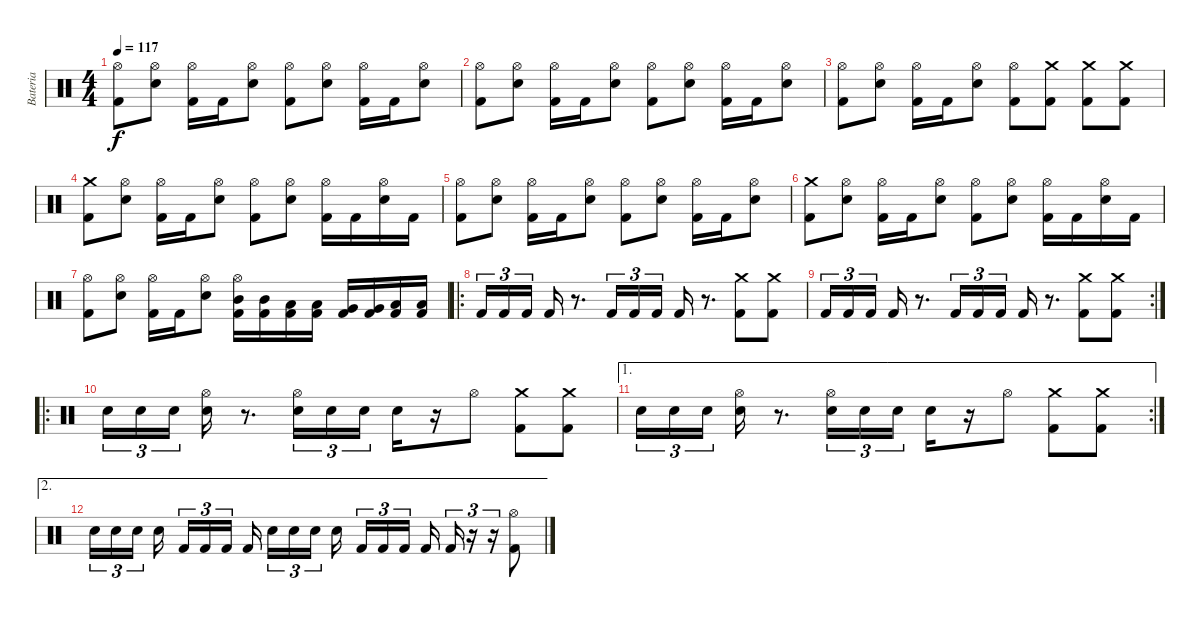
\track ("Bateria" "Bateria") {instrument percussion}
\staff {score}
\articulation defaults
\ts (4 4)
\tempo 117
\clef neutral
\ks c
("Hi-Hat (open)" "Kick (hit) 2").8{dy f} ("Hi-Hat (open)" "Electric Snare (hit)").8 ("Hi-Hat (open)" "Kick (hit) 2").16 "Kick (hit) 2".16 ("Hi-Hat (open)" "Electric Snare (hit)").8 ("Hi-Hat (open)" "Kick (hit) 2").8 ("Hi-Hat (open)" "Electric Snare (hit)").8 ("Hi-Hat (open)" "Kick (hit) 2").16 "Kick (hit) 2".16 ("Hi-Hat (open)" "Electric Snare (hit)").8 |
("Hi-Hat (open)" "Kick (hit) 2").8 ("Hi-Hat (open)" "Electric Snare (hit)").8 ("Hi-Hat (open)" "Kick (hit) 2").16 "Kick (hit) 2".16 ("Hi-Hat (open)" "Electric Snare (hit)").8 ("Hi-Hat (open)" "Kick (hit) 2").8 ("Hi-Hat (open)" "Electric Snare (hit)").8 ("Hi-Hat (open)" "Kick (hit) 2").16 "Kick (hit) 2".16 ("Hi-Hat (open)" "Electric Snare (hit)").8 |
("Hi-Hat (open)" "Kick (hit) 2").8 ("Hi-Hat (open)" "Electric Snare (hit)").8 ("Hi-Hat (open)" "Kick (hit) 2").16 "Kick (hit) 2".16 ("Hi-Hat (open)" "Electric Snare (hit)").8 ("Hi-Hat (open)" "Kick (hit) 2").8 ("Crash medium (hit)" "Kick (hit) 2").8 ("Crash medium (hit)" "Kick (hit) 2").8 ("Crash medium (hit)" "Kick (hit) 2").8 |
("Crash medium (hit)" "Kick (hit) 2").8 ("Hi-Hat (open)" "Electric Snare (hit)").8 ("Hi-Hat (open)" "Kick (hit) 2").16 "Kick (hit) 2".16 ("Hi-Hat (open)" "Electric Snare (hit)").8 ("Hi-Hat (open)" "Kick (hit) 2").8 ("Hi-Hat (open)" "Electric Snare (hit)").8 ("Hi-Hat (open)" "Kick (hit) 2").16 "Kick (hit) 2".16 ("Hi-Hat (open)" "Electric Snare (hit)").16 "Kick (hit) 2".16 |
("Hi-Hat (open)" "Kick (hit) 2").8 ("Hi-Hat (open)" "Electric Snare (hit)").8 ("Hi-Hat (open)" "Kick (hit) 2").16 "Kick (hit) 2".16 ("Hi-Hat (open)" "Electric Snare (hit)").8 ("Hi-Hat (open)" "Kick (hit) 2").8 ("Hi-Hat (open)" "Electric Snare (hit)").8 ("Hi-Hat (open)" "Kick (hit) 2").16 "Kick (hit) 2".16 ("Hi-Hat (open)" "Electric Snare (hit)").8 |
("Crash medium (hit)" "Kick (hit) 2").8 ("Hi-Hat (open)" "Electric Snare (hit)").8 ("Hi-Hat (open)" "Kick (hit) 2").16 "Kick (hit) 2".16 ("Hi-Hat (open)" "Electric Snare (hit)").8 ("Hi-Hat (open)" "Kick (hit) 2").8 ("Hi-Hat (open)" "Electric Snare (hit)").8 ("Hi-Hat (open)" "Kick (hit) 2").16 "Kick (hit) 2".16 ("Hi-Hat (open)" "Electric Snare (hit)").16 "Kick (hit) 2".16 |
("Hi-Hat (open)" "Kick (hit) 2").8 ("Hi-Hat (open)" "Electric Snare (hit)").8 ("Hi-Hat (open)" "Kick (hit) 2").16 "Kick (hit) 2".16 ("Hi-Hat (open)" "Electric Snare (hit)").8 ("Hi-Hat (open)" "Mid Tom (hit)" "Kick (hit) 2").16 ("Mid Tom (hit)" "Kick (hit) 2").16 ("Low Tom (hit)" "Kick (hit) 2").16 ("Low Tom (hit)" "Kick (hit) 2").16 ("Very Low Tom (hit)" "Kick (hit) 2").16 ("Very Low Tom (hit)" "Kick (hit) 2").16 ("Low Floor Tom (hit)" "Kick (hit) 2").16 ("Low Floor Tom (hit)" "Kick (hit) 2").16 |
\ro "Kick (hit) 2".16{tu (3 2)} "Kick (hit) 2".16{tu (3 2)} "Kick (hit) 2".16{tu (3 2)} "Kick (hit) 2".16
r.8{d} "Kick (hit) 2".16{tu (3 2)} "Kick (hit) 2".16{tu (3 2)} "Kick (hit) 2".16{tu (3 2)} "Kick (hit) 2".16 r.8{d} ("Crash medium (hit)" "Kick (hit) 2").8 ("Crash medium (hit)" "Kick (hit) 2").8 |
\rc 2 "Kick (hit) 2".16{tu (3 2)} "Kick (hit) 2".16{tu (3 2)} "Kick (hit) 2".16{tu (3 2)} "Kick (hit) 2".16
r.8{d} "Kick (hit) 2".16{tu (3 2)} "Kick (hit) 2".16{tu (3 2)} "Kick (hit) 2".16{tu (3 2)} "Kick (hit) 2".16 r.8{d} ("Crash medium (hit)" "Kick (hit) 2").8 ("Crash medium (hit)" "Kick (hit) 2").8 |
\ro "Electric Snare (hit)".16{tu (3 2)} "Electric Snare (hit)".16{tu (3 2)} "Electric Snare (hit)".16{tu (3 2)}
("Hi-Hat (open)" "Electric Snare (hit)").16 r.8{d} ("Hi-Hat (open)" "Electric Snare (hit)").16{tu (3 2)} "Electric Snare (hit)".16{tu (3 2)} "Electric Snare (hit)".16{tu (3 2)} "Electric Snare (hit)".16 r.16 "Hi-Hat (open)".8 ("Crash medium (hit)" "Kick (hit) 2").8 ("Crash medium (hit)" "Kick (hit) 2").8 |
\ae 1
\rc 2 "Electric Snare (hit)".16{tu (3 2)} "Electric Snare (hit)".16{tu (3 2)} "Electric Snare (hit)".16{tu (3 2)}
("Hi-Hat (open)" "Electric Snare (hit)").16 r.8{d} ("Hi-Hat (open)" "Electric Snare (hit)").16{tu (3 2)} "Electric Snare (hit)".16{tu (3 2)} "Electric Snare (hit)".16{tu (3 2)} "Electric Snare (hit)".16 r.16 "Hi-Hat (open)".8 ("Crash medium (hit)" "Kick (hit) 2").8 ("Crash medium (hit)" "Kick (hit) 2").8 |
\ae 2 "Electric Snare (hit)".16{tu (3 2)} "Electric Snare (hit)".16{tu (3 2)} "Electric Snare (hit)".16{tu (3 2)} "Electric Snare (hit)".16 "Kick (hit) 2".16{tu (3 2)} "Kick (hit) 2".16{tu (3 2)} "Kick (hit) 2".16{tu (3 2)} "Kick (hit) 2".16 "Electric Snare (hit)".16{tu (3 2)} "Electric Snare (hit)".16{tu (3 2)} "Electric Snare (hit)".16{tu (3 2)} "Electric Snare (hit)".16 "Kick (hit) 2".16{tu (3 2)} "Kick (hit) 2".16{tu (3 2)} "Kick (hit) 2".16{tu (3 2)} "Kick (hit) 2".16 "Kick (hit) 2".16{tu (3 2)}
r.16{tu (3 2)} r.16{tu (3 2)} ("Hi-Hat (open)" "Kick (hit) 2").8
